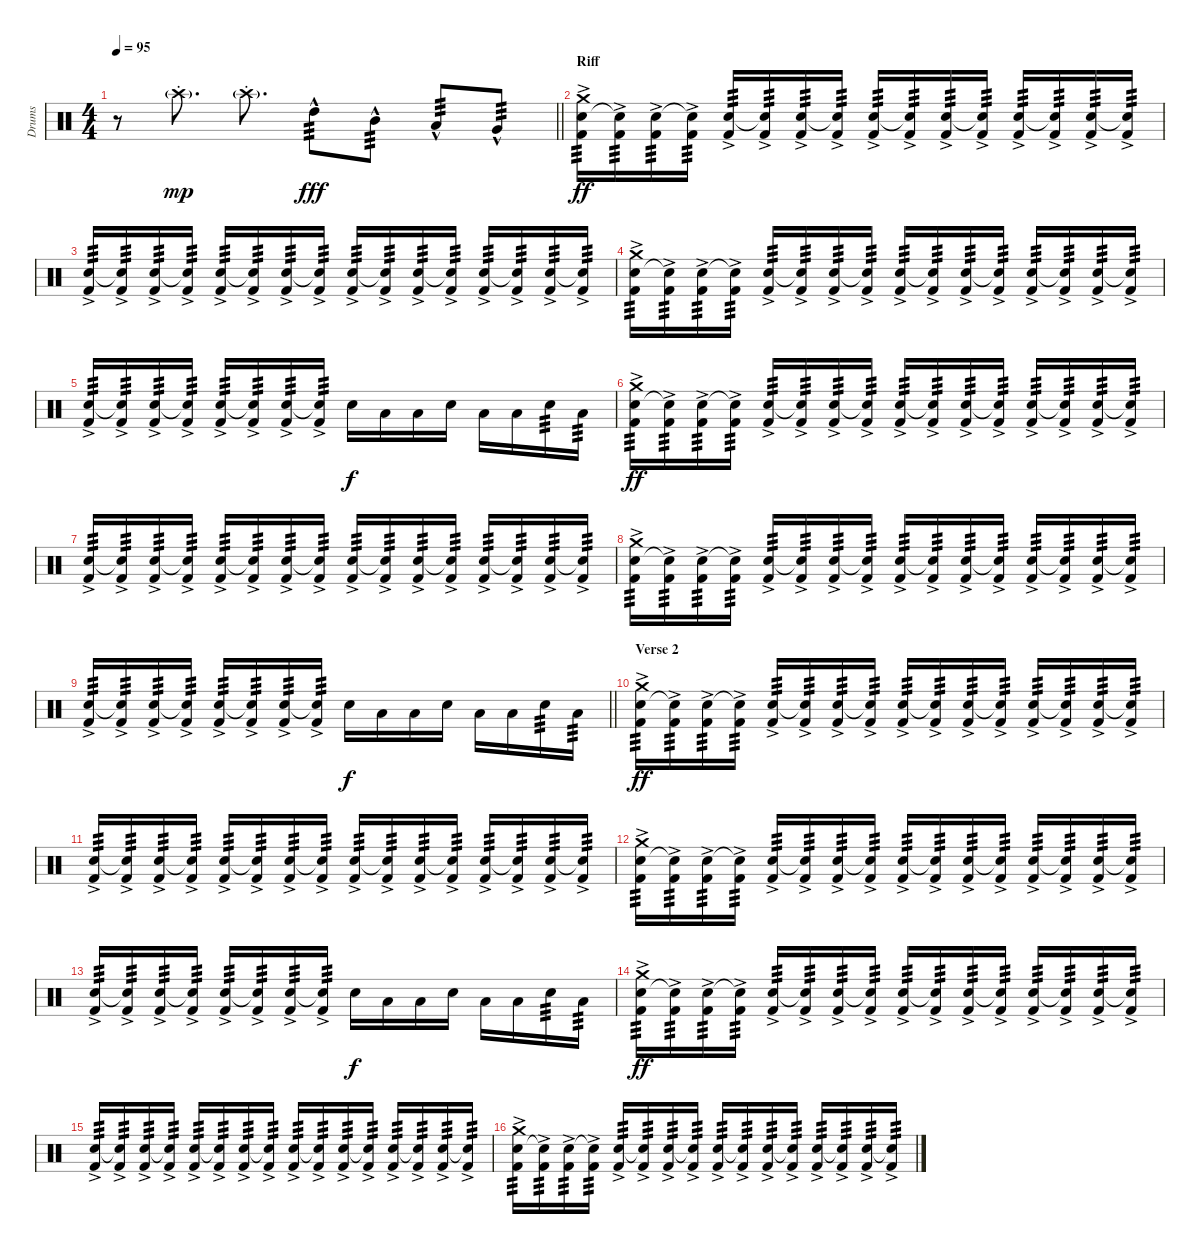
\track ("Drums" "Drums") {instrument percussion}
\staff {score}
\articulation defaults
\ts (4 4)
\tempo 95
\clef neutral
\barLineRight lightlight
\ks c
r.8{dy fff} "Crash high (hit)"{g st}.8{d dy mp} "Crash high (hit)"{g st}.8{d} "High Tom (hit)"{hac}.8{tp 3 dy fff} "Mid Tom (hit)"{hac}.8{tp 3} "Low Tom (hit)"{hac}.8{tp 3} "Very Low Tom (hit)"{hac}.8{tp 3} |
\section ("" "Riff")
("Snare (hit) 2" "Kick (hit) 2"{ac} "Crash medium (hit)").16{tp 3 dy ff} ("Snare (hit) 2"{t} "Kick (hit) 2"{ac}).16{tp 3} ("Snare (hit) 2" "Kick (hit) 2"{ac}).16{tp 3} ("Snare (hit) 2"{t} "Kick (hit) 2"{ac}).16{tp 3} ("Snare (hit) 2" "Kick (hit) 2"{ac}).16{tp 3} ("Snare (hit) 2"{t} "Kick (hit) 2"{ac}).16{tp 3} ("Snare (hit) 2" "Kick (hit) 2"{ac}).16{tp 3} ("Snare (hit) 2"{t} "Kick (hit) 2"{ac}).16{tp 3} ("Snare (hit) 2" "Kick (hit) 2"{ac}).16{tp 3} ("Snare (hit) 2"{t} "Kick (hit) 2"{ac}).16{tp 3} ("Snare (hit) 2" "Kick (hit) 2"{ac}).16{tp 3} ("Snare (hit) 2"{t} "Kick (hit) 2"{ac}).16{tp 3} ("Snare (hit) 2" "Kick (hit) 2"{ac}).16{tp 3} ("Snare (hit) 2"{t} "Kick (hit) 2"{ac}).16{tp 3} ("Snare (hit) 2" "Kick (hit) 2"{ac}).16{tp 3} ("Snare (hit) 2"{t} "Kick (hit) 2"{ac}).16{tp 3} |
("Snare (hit) 2" "Kick (hit) 2"{ac}).16{tp 3} ("Snare (hit) 2"{t} "Kick (hit) 2"{ac}).16{tp 3} ("Snare (hit) 2" "Kick (hit) 2"{ac}).16{tp 3} ("Snare (hit) 2"{t} "Kick (hit) 2"{ac}).16{tp 3} ("Snare (hit) 2" "Kick (hit) 2"{ac}).16{tp 3} ("Snare (hit) 2"{t} "Kick (hit) 2"{ac}).16{tp 3} ("Snare (hit) 2" "Kick (hit) 2"{ac}).16{tp 3} ("Snare (hit) 2"{t} "Kick (hit) 2"{ac}).16{tp 3} ("Snare (hit) 2" "Kick (hit) 2"{ac}).16{tp 3} ("Snare (hit) 2"{t} "Kick (hit) 2"{ac}).16{tp 3} ("Snare (hit) 2" "Kick (hit) 2"{ac}).16{tp 3} ("Snare (hit) 2"{t} "Kick (hit) 2"{ac}).16{tp 3} ("Snare (hit) 2" "Kick (hit) 2"{ac}).16{tp 3} ("Snare (hit) 2"{t} "Kick (hit) 2"{ac}).16{tp 3} ("Snare (hit) 2" "Kick (hit) 2"{ac}).16{tp 3} ("Snare (hit) 2"{t} "Kick (hit) 2"{ac}).16{tp 3} |
("Snare (hit) 2" "Kick (hit) 2"{ac} "Crash medium (hit)").16{tp 3} ("Snare (hit) 2"{t} "Kick (hit) 2"{ac}).16{tp 3} ("Snare (hit) 2" "Kick (hit) 2"{ac}).16{tp 3} ("Snare (hit) 2"{t} "Kick (hit) 2"{ac}).16{tp 3} ("Snare (hit) 2" "Kick (hit) 2"{ac}).16{tp 3} ("Snare (hit) 2"{t} "Kick (hit) 2"{ac}).16{tp 3} ("Snare (hit) 2" "Kick (hit) 2"{ac}).16{tp 3} ("Snare (hit) 2"{t} "Kick (hit) 2"{ac}).16{tp 3} ("Snare (hit) 2" "Kick (hit) 2"{ac}).16{tp 3} ("Snare (hit) 2"{t} "Kick (hit) 2"{ac}).16{tp 3} ("Snare (hit) 2" "Kick (hit) 2"{ac}).16{tp 3} ("Snare (hit) 2"{t} "Kick (hit) 2"{ac}).16{tp 3} ("Snare (hit) 2" "Kick (hit) 2"{ac}).16{tp 3} ("Snare (hit) 2"{t} "Kick (hit) 2"{ac}).16{tp 3} ("Snare (hit) 2" "Kick (hit) 2"{ac}).16{tp 3} ("Snare (hit) 2"{t} "Kick (hit) 2"{ac}).16{tp 3} |
("Snare (hit) 2" "Kick (hit) 2"{ac}).16{tp 3} ("Snare (hit) 2"{t} "Kick (hit) 2"{ac}).16{tp 3} ("Snare (hit) 2" "Kick (hit) 2"{ac}).16{tp 3} ("Snare (hit) 2"{t} "Kick (hit) 2"{ac}).16{tp 3} ("Snare (hit) 2" "Kick (hit) 2"{ac}).16{tp 3} ("Snare (hit) 2"{t} "Kick (hit) 2"{ac}).16{tp 3} ("Snare (hit) 2" "Kick (hit) 2"{ac}).16{tp 3} ("Snare (hit) 2"{t} "Kick (hit) 2"{ac}).16{tp 3} "Snare (hit) 2".16{dy f} "Low Tom (hit)".16 "Low Tom (hit)".16 "Snare (hit) 2".16 "Low Tom (hit)".16 "Low Tom (hit)".16 "Snare (hit) 2".16{tp 3} "Low Tom (hit)".16{tp 3} |
("Snare (hit) 2" "Kick (hit) 2"{ac} "Crash medium (hit)").16{tp 3 dy ff} ("Snare (hit) 2"{t} "Kick (hit) 2"{ac}).16{tp 3} ("Snare (hit) 2" "Kick (hit) 2"{ac}).16{tp 3} ("Snare (hit) 2"{t} "Kick (hit) 2"{ac}).16{tp 3} ("Snare (hit) 2" "Kick (hit) 2"{ac}).16{tp 3} ("Snare (hit) 2"{t} "Kick (hit) 2"{ac}).16{tp 3} ("Snare (hit) 2" "Kick (hit) 2"{ac}).16{tp 3} ("Snare (hit) 2"{t} "Kick (hit) 2"{ac}).16{tp 3} ("Snare (hit) 2" "Kick (hit) 2"{ac}).16{tp 3} ("Snare (hit) 2"{t} "Kick (hit) 2"{ac}).16{tp 3} ("Snare (hit) 2" "Kick (hit) 2"{ac}).16{tp 3} ("Snare (hit) 2"{t} "Kick (hit) 2"{ac}).16{tp 3} ("Snare (hit) 2" "Kick (hit) 2"{ac}).16{tp 3} ("Snare (hit) 2"{t} "Kick (hit) 2"{ac}).16{tp 3} ("Snare (hit) 2" "Kick (hit) 2"{ac}).16{tp 3} ("Snare (hit) 2"{t} "Kick (hit) 2"{ac}).16{tp 3} |
("Snare (hit) 2" "Kick (hit) 2"{ac}).16{tp 3} ("Snare (hit) 2"{t} "Kick (hit) 2"{ac}).16{tp 3} ("Snare (hit) 2" "Kick (hit) 2"{ac}).16{tp 3} ("Snare (hit) 2"{t} "Kick (hit) 2"{ac}).16{tp 3} ("Snare (hit) 2" "Kick (hit) 2"{ac}).16{tp 3} ("Snare (hit) 2"{t} "Kick (hit) 2"{ac}).16{tp 3} ("Snare (hit) 2" "Kick (hit) 2"{ac}).16{tp 3} ("Snare (hit) 2"{t} "Kick (hit) 2"{ac}).16{tp 3} ("Snare (hit) 2" "Kick (hit) 2"{ac}).16{tp 3} ("Snare (hit) 2"{t} "Kick (hit) 2"{ac}).16{tp 3} ("Snare (hit) 2" "Kick (hit) 2"{ac}).16{tp 3} ("Snare (hit) 2"{t} "Kick (hit) 2"{ac}).16{tp 3} ("Snare (hit) 2" "Kick (hit) 2"{ac}).16{tp 3} ("Snare (hit) 2"{t} "Kick (hit) 2"{ac}).16{tp 3} ("Snare (hit) 2" "Kick (hit) 2"{ac}).16{tp 3} ("Snare (hit) 2"{t} "Kick (hit) 2"{ac}).16{tp 3} |
("Snare (hit) 2" "Kick (hit) 2"{ac} "Crash medium (hit)").16{tp 3} ("Snare (hit) 2"{t} "Kick (hit) 2"{ac}).16{tp 3} ("Snare (hit) 2" "Kick (hit) 2"{ac}).16{tp 3} ("Snare (hit) 2"{t} "Kick (hit) 2"{ac}).16{tp 3} ("Snare (hit) 2" "Kick (hit) 2"{ac}).16{tp 3} ("Snare (hit) 2"{t} "Kick (hit) 2"{ac}).16{tp 3} ("Snare (hit) 2" "Kick (hit) 2"{ac}).16{tp 3} ("Snare (hit) 2"{t} "Kick (hit) 2"{ac}).16{tp 3} ("Snare (hit) 2" "Kick (hit) 2"{ac}).16{tp 3} ("Snare (hit) 2"{t} "Kick (hit) 2"{ac}).16{tp 3} ("Snare (hit) 2" "Kick (hit) 2"{ac}).16{tp 3} ("Snare (hit) 2"{t} "Kick (hit) 2"{ac}).16{tp 3} ("Snare (hit) 2" "Kick (hit) 2"{ac}).16{tp 3} ("Snare (hit) 2"{t} "Kick (hit) 2"{ac}).16{tp 3} ("Snare (hit) 2" "Kick (hit) 2"{ac}).16{tp 3} ("Snare (hit) 2"{t} "Kick (hit) 2"{ac}).16{tp 3} |
\barLineRight lightlight
("Snare (hit) 2" "Kick (hit) 2"{ac}).16{tp 3} ("Snare (hit) 2"{t} "Kick (hit) 2"{ac}).16{tp 3} ("Snare (hit) 2" "Kick (hit) 2"{ac}).16{tp 3} ("Snare (hit) 2"{t} "Kick (hit) 2"{ac}).16{tp 3} ("Snare (hit) 2" "Kick (hit) 2"{ac}).16{tp 3} ("Snare (hit) 2"{t} "Kick (hit) 2"{ac}).16{tp 3} ("Snare (hit) 2" "Kick (hit) 2"{ac}).16{tp 3} ("Snare (hit) 2"{t} "Kick (hit) 2"{ac}).16{tp 3} "Snare (hit) 2".16{dy f} "Low Tom (hit)".16 "Low Tom (hit)".16 "Snare (hit) 2".16 "Low Tom (hit)".16 "Low Tom (hit)".16 "Snare (hit) 2".16{tp 3} "Low Tom (hit)".16{tp 3} |
\section ("" "Verse 2")
("Snare (hit) 2" "Kick (hit) 2"{ac} "Crash medium (hit)").16{tp 3 dy ff} ("Snare (hit) 2"{t} "Kick (hit) 2"{ac}).16{tp 3} ("Snare (hit) 2" "Kick (hit) 2"{ac}).16{tp 3} ("Snare (hit) 2"{t} "Kick (hit) 2"{ac}).16{tp 3} ("Snare (hit) 2" "Kick (hit) 2"{ac}).16{tp 3} ("Snare (hit) 2"{t} "Kick (hit) 2"{ac}).16{tp 3} ("Snare (hit) 2" "Kick (hit) 2"{ac}).16{tp 3} ("Snare (hit) 2"{t} "Kick (hit) 2"{ac}).16{tp 3} ("Snare (hit) 2" "Kick (hit) 2"{ac}).16{tp 3} ("Snare (hit) 2"{t} "Kick (hit) 2"{ac}).16{tp 3} ("Snare (hit) 2" "Kick (hit) 2"{ac}).16{tp 3} ("Snare (hit) 2"{t} "Kick (hit) 2"{ac}).16{tp 3} ("Snare (hit) 2" "Kick (hit) 2"{ac}).16{tp 3} ("Snare (hit) 2"{t} "Kick (hit) 2"{ac}).16{tp 3} ("Snare (hit) 2" "Kick (hit) 2"{ac}).16{tp 3} ("Snare (hit) 2"{t} "Kick (hit) 2"{ac}).16{tp 3} |
("Snare (hit) 2" "Kick (hit) 2"{ac}).16{tp 3} ("Snare (hit) 2"{t} "Kick (hit) 2"{ac}).16{tp 3} ("Snare (hit) 2" "Kick (hit) 2"{ac}).16{tp 3} ("Snare (hit) 2"{t} "Kick (hit) 2"{ac}).16{tp 3} ("Snare (hit) 2" "Kick (hit) 2"{ac}).16{tp 3} ("Snare (hit) 2"{t} "Kick (hit) 2"{ac}).16{tp 3} ("Snare (hit) 2" "Kick (hit) 2"{ac}).16{tp 3} ("Snare (hit) 2"{t} "Kick (hit) 2"{ac}).16{tp 3} ("Snare (hit) 2" "Kick (hit) 2"{ac}).16{tp 3} ("Snare (hit) 2"{t} "Kick (hit) 2"{ac}).16{tp 3} ("Snare (hit) 2" "Kick (hit) 2"{ac}).16{tp 3} ("Snare (hit) 2"{t} "Kick (hit) 2"{ac}).16{tp 3} ("Snare (hit) 2" "Kick (hit) 2"{ac}).16{tp 3} ("Snare (hit) 2"{t} "Kick (hit) 2"{ac}).16{tp 3} ("Snare (hit) 2" "Kick (hit) 2"{ac}).16{tp 3} ("Snare (hit) 2"{t} "Kick (hit) 2"{ac}).16{tp 3} |
("Snare (hit) 2" "Kick (hit) 2"{ac} "Crash medium (hit)").16{tp 3} ("Snare (hit) 2"{t} "Kick (hit) 2"{ac}).16{tp 3} ("Snare (hit) 2" "Kick (hit) 2"{ac}).16{tp 3} ("Snare (hit) 2"{t} "Kick (hit) 2"{ac}).16{tp 3} ("Snare (hit) 2" "Kick (hit) 2"{ac}).16{tp 3} ("Snare (hit) 2"{t} "Kick (hit) 2"{ac}).16{tp 3} ("Snare (hit) 2" "Kick (hit) 2"{ac}).16{tp 3} ("Snare (hit) 2"{t} "Kick (hit) 2"{ac}).16{tp 3} ("Snare (hit) 2" "Kick (hit) 2"{ac}).16{tp 3} ("Snare (hit) 2"{t} "Kick (hit) 2"{ac}).16{tp 3} ("Snare (hit) 2" "Kick (hit) 2"{ac}).16{tp 3} ("Snare (hit) 2"{t} "Kick (hit) 2"{ac}).16{tp 3} ("Snare (hit) 2" "Kick (hit) 2"{ac}).16{tp 3} ("Snare (hit) 2"{t} "Kick (hit) 2"{ac}).16{tp 3} ("Snare (hit) 2" "Kick (hit) 2"{ac}).16{tp 3} ("Snare (hit) 2"{t} "Kick (hit) 2"{ac}).16{tp 3} |
("Snare (hit) 2" "Kick (hit) 2"{ac}).16{tp 3} ("Snare (hit) 2"{t} "Kick (hit) 2"{ac}).16{tp 3} ("Snare (hit) 2" "Kick (hit) 2"{ac}).16{tp 3} ("Snare (hit) 2"{t} "Kick (hit) 2"{ac}).16{tp 3} ("Snare (hit) 2" "Kick (hit) 2"{ac}).16{tp 3} ("Snare (hit) 2"{t} "Kick (hit) 2"{ac}).16{tp 3} ("Snare (hit) 2" "Kick (hit) 2"{ac}).16{tp 3} ("Snare (hit) 2"{t} "Kick (hit) 2"{ac}).16{tp 3} "Snare (hit) 2".16{dy f} "Low Tom (hit)".16 "Low Tom (hit)".16 "Snare (hit) 2".16 "Low Tom (hit)".16 "Low Tom (hit)".16 "Snare (hit) 2".16{tp 3} "Low Tom (hit)".16{tp 3} |
("Snare (hit) 2" "Kick (hit) 2"{ac} "Crash medium (hit)").16{tp 3 dy ff} ("Snare (hit) 2"{t} "Kick (hit) 2"{ac}).16{tp 3} ("Snare (hit) 2" "Kick (hit) 2"{ac}).16{tp 3} ("Snare (hit) 2"{t} "Kick (hit) 2"{ac}).16{tp 3} ("Snare (hit) 2" "Kick (hit) 2"{ac}).16{tp 3} ("Snare (hit) 2"{t} "Kick (hit) 2"{ac}).16{tp 3} ("Snare (hit) 2" "Kick (hit) 2"{ac}).16{tp 3} ("Snare (hit) 2"{t} "Kick (hit) 2"{ac}).16{tp 3} ("Snare (hit) 2" "Kick (hit) 2"{ac}).16{tp 3} ("Snare (hit) 2"{t} "Kick (hit) 2"{ac}).16{tp 3} ("Snare (hit) 2" "Kick (hit) 2"{ac}).16{tp 3} ("Snare (hit) 2"{t} "Kick (hit) 2"{ac}).16{tp 3} ("Snare (hit) 2" "Kick (hit) 2"{ac}).16{tp 3} ("Snare (hit) 2"{t} "Kick (hit) 2"{ac}).16{tp 3} ("Snare (hit) 2" "Kick (hit) 2"{ac}).16{tp 3} ("Snare (hit) 2"{t} "Kick (hit) 2"{ac}).16{tp 3} |
("Snare (hit) 2" "Kick (hit) 2"{ac}).16{tp 3} ("Snare (hit) 2"{t} "Kick (hit) 2"{ac}).16{tp 3} ("Snare (hit) 2" "Kick (hit) 2"{ac}).16{tp 3} ("Snare (hit) 2"{t} "Kick (hit) 2"{ac}).16{tp 3} ("Snare (hit) 2" "Kick (hit) 2"{ac}).16{tp 3} ("Snare (hit) 2"{t} "Kick (hit) 2"{ac}).16{tp 3} ("Snare (hit) 2" "Kick (hit) 2"{ac}).16{tp 3} ("Snare (hit) 2"{t} "Kick (hit) 2"{ac}).16{tp 3} ("Snare (hit) 2" "Kick (hit) 2"{ac}).16{tp 3} ("Snare (hit) 2"{t} "Kick (hit) 2"{ac}).16{tp 3} ("Snare (hit) 2" "Kick (hit) 2"{ac}).16{tp 3} ("Snare (hit) 2"{t} "Kick (hit) 2"{ac}).16{tp 3} ("Snare (hit) 2" "Kick (hit) 2"{ac}).16{tp 3} ("Snare (hit) 2"{t} "Kick (hit) 2"{ac}).16{tp 3} ("Snare (hit) 2" "Kick (hit) 2"{ac}).16{tp 3} ("Snare (hit) 2"{t} "Kick (hit) 2"{ac}).16{tp 3} |
("Snare (hit) 2" "Kick (hit) 2"{ac} "Crash medium (hit)").16{tp 3} ("Snare (hit) 2"{t} "Kick (hit) 2"{ac}).16{tp 3} ("Snare (hit) 2" "Kick (hit) 2"{ac}).16{tp 3} ("Snare (hit) 2"{t} "Kick (hit) 2"{ac}).16{tp 3} ("Snare (hit) 2" "Kick (hit) 2"{ac}).16{tp 3} ("Snare (hit) 2"{t} "Kick (hit) 2"{ac}).16{tp 3} ("Snare (hit) 2" "Kick (hit) 2"{ac}).16{tp 3} ("Snare (hit) 2"{t} "Kick (hit) 2"{ac}).16{tp 3} ("Snare (hit) 2" "Kick (hit) 2"{ac}).16{tp 3} ("Snare (hit) 2"{t} "Kick (hit) 2"{ac}).16{tp 3} ("Snare (hit) 2" "Kick (hit) 2"{ac}).16{tp 3} ("Snare (hit) 2"{t} "Kick (hit) 2"{ac}).16{tp 3} ("Snare (hit) 2" "Kick (hit) 2"{ac}).16{tp 3} ("Snare (hit) 2"{t} "Kick (hit) 2"{ac}).16{tp 3} ("Snare (hit) 2" "Kick (hit) 2"{ac}).16{tp 3} ("Snare (hit) 2"{t} "Kick (hit) 2"{ac}).16{tp 3}
